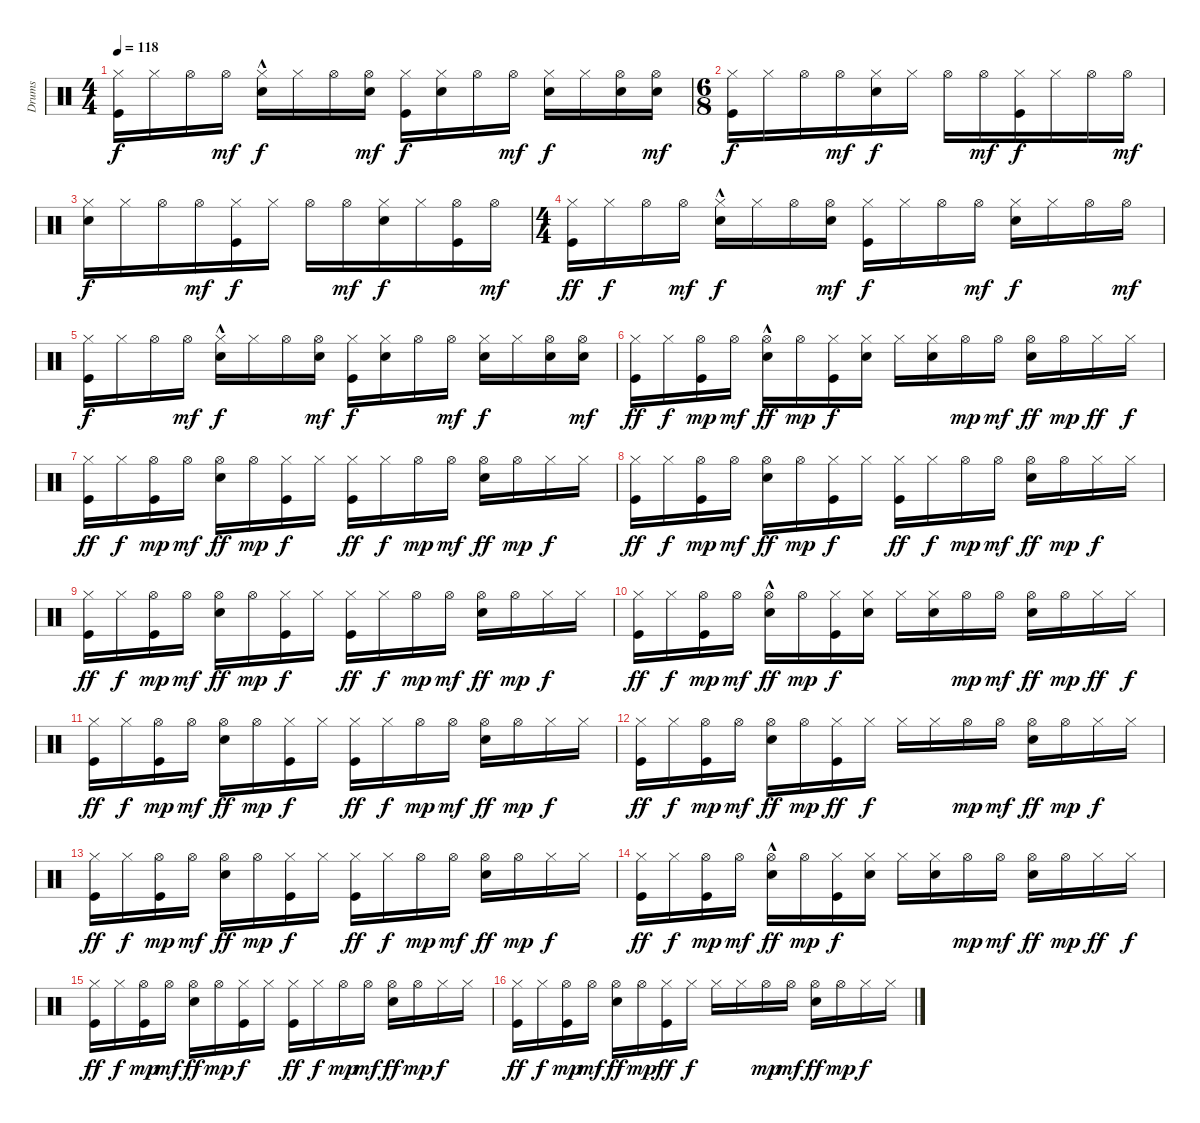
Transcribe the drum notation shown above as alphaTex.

\track ("Drums" "Drums") {instrument percussion}
\staff {score}
\articulation defaults
\ts (4 4)
\tempo 118
\clef neutral
\ks c
("Kick (hit)" "Hi-Hat (closed)").16{dy f} "Hi-Hat (closed)".16 "Hi-Hat (open)".16 "Hi-Hat (open)".16{dy mf} ("Electric Snare (hit)"{hac} "Hi-Hat (closed)").16{dy f} "Hi-Hat (closed)".16 "Hi-Hat (open)".16 ("Hi-Hat (open)" "Electric Snare (hit)").16{dy mf} ("Hi-Hat (closed)" "Kick (hit)").16{dy f} ("Electric Snare (hit)" "Hi-Hat (closed)").16 "Hi-Hat (open)".16 "Hi-Hat (open)".16{dy mf} ("Electric Snare (hit)" "Hi-Hat (closed)").16{dy f} "Hi-Hat (closed)".16 ("Electric Snare (hit)" "Hi-Hat (open)").16 ("Electric Snare (hit)" "Hi-Hat (open)").16{dy mf} |
\ts (6 8)
("Hi-Hat (closed)" "Kick (hit)").16{dy f} "Hi-Hat (closed)".16 "Hi-Hat (open)".16 "Hi-Hat (open)".16{dy mf} ("Electric Snare (hit)" "Hi-Hat (closed)").16{dy f} "Hi-Hat (closed)".16 "Hi-Hat (open)".16 "Hi-Hat (open)".16{dy mf} ("Kick (hit)" "Hi-Hat (closed)").16{dy f} "Hi-Hat (closed)".16 "Hi-Hat (open)".16 "Hi-Hat (open)".16{dy mf} |
("Electric Snare (hit)" "Hi-Hat (closed)").16{dy f} "Hi-Hat (closed)".16 "Hi-Hat (open)".16 "Hi-Hat (open)".16{dy mf} ("Kick (hit)" "Hi-Hat (closed)").16{dy f} "Hi-Hat (closed)".16 "Hi-Hat (open)".16 "Hi-Hat (open)".16{dy mf} ("Electric Snare (hit)" "Hi-Hat (closed)").16{dy f} "Hi-Hat (closed)".16 ("Kick (hit)" "Hi-Hat (open)").16 "Hi-Hat (open)".16{dy mf} |
\ts (4 4)
("Kick (hit)" "Hi-Hat (closed)").16{dy ff} "Hi-Hat (closed)".16{dy f} "Hi-Hat (open)".16 "Hi-Hat (open)".16{dy mf} ("Electric Snare (hit)"{hac} "Hi-Hat (closed)").16{dy f} "Hi-Hat (closed)".16 "Hi-Hat (open)".16 ("Hi-Hat (open)" "Electric Snare (hit)").16{dy mf} ("Hi-Hat (closed)" "Kick (hit)").16{dy f} "Hi-Hat (closed)".16 "Hi-Hat (open)".16 "Hi-Hat (open)".16{dy mf} ("Electric Snare (hit)" "Hi-Hat (closed)").16{dy f} "Hi-Hat (closed)".16 "Hi-Hat (open)".16 "Hi-Hat (open)".16{dy mf} |
("Kick (hit)" "Hi-Hat (closed)").16{dy f} "Hi-Hat (closed)".16 "Hi-Hat (open)".16 "Hi-Hat (open)".16{dy mf} ("Electric Snare (hit)"{hac} "Hi-Hat (closed)").16{dy f} "Hi-Hat (closed)".16 "Hi-Hat (open)".16 ("Hi-Hat (open)" "Electric Snare (hit)").16{dy mf} ("Hi-Hat (closed)" "Kick (hit)").16{dy f} ("Electric Snare (hit)" "Hi-Hat (closed)").16 "Hi-Hat (open)".16 "Hi-Hat (open)".16{dy mf} ("Electric Snare (hit)" "Hi-Hat (closed)").16{dy f} "Hi-Hat (closed)".16 ("Electric Snare (hit)" "Hi-Hat (open)").16 ("Electric Snare (hit)" "Hi-Hat (open)").16{dy mf} |
("Kick (hit)" "Hi-Hat (closed)").16{dy ff} "Hi-Hat (closed)".16{dy f} ("Kick (hit)" "Hi-Hat (open)").16{dy mp} "Hi-Hat (open)".16{dy mf} ("Electric Snare (hit)"{hac} "Hi-Hat (open)").16{dy ff} "Hi-Hat (open)".16{dy mp} ("Kick (hit)" "Hi-Hat (closed)").16{dy f} ("Electric Snare (hit)" "Hi-Hat (closed)").16 "Hi-Hat (closed)".16 ("Electric Snare (hit)" "Hi-Hat (closed)").16 "Hi-Hat (open)".16{dy mp} "Hi-Hat (open)".16{dy mf} ("Hi-Hat (open)" "Electric Snare (hit)").16{dy ff} "Hi-Hat (open)".16{dy mp} "Hi-Hat (closed)".16{dy ff} "Hi-Hat (closed)".16{dy f} |
("Kick (hit)" "Hi-Hat (closed)").16{dy ff} "Hi-Hat (closed)".16{dy f} ("Kick (hit)" "Hi-Hat (open)").16{dy mp} "Hi-Hat (open)".16{dy mf} ("Electric Snare (hit)" "Hi-Hat (open)").16{dy ff} "Hi-Hat (open)".16{dy mp} ("Kick (hit)" "Hi-Hat (closed)").16{dy f} "Hi-Hat (closed)".16 ("Kick (hit)" "Hi-Hat (closed)").16{dy ff} "Hi-Hat (closed)".16{dy f} "Hi-Hat (open)".16{dy mp} "Hi-Hat (open)".16{dy mf} ("Electric Snare (hit)" "Hi-Hat (open)").16{dy ff} "Hi-Hat (open)".16{dy mp} "Hi-Hat (closed)".16{dy f} "Hi-Hat (closed)".16 |
("Kick (hit)" "Hi-Hat (closed)").16{dy ff} "Hi-Hat (closed)".16{dy f} ("Kick (hit)" "Hi-Hat (open)").16{dy mp} "Hi-Hat (open)".16{dy mf} ("Electric Snare (hit)" "Hi-Hat (open)").16{dy ff} "Hi-Hat (open)".16{dy mp} ("Kick (hit)" "Hi-Hat (closed)").16{dy f} "Hi-Hat (closed)".16 ("Kick (hit)" "Hi-Hat (closed)").16{dy ff} "Hi-Hat (closed)".16{dy f} "Hi-Hat (open)".16{dy mp} "Hi-Hat (open)".16{dy mf} ("Electric Snare (hit)" "Hi-Hat (open)").16{dy ff} "Hi-Hat (open)".16{dy mp} "Hi-Hat (closed)".16{dy f} "Hi-Hat (closed)".16 |
("Kick (hit)" "Hi-Hat (closed)").16{dy ff} "Hi-Hat (closed)".16{dy f} ("Kick (hit)" "Hi-Hat (open)").16{dy mp} "Hi-Hat (open)".16{dy mf} ("Electric Snare (hit)" "Hi-Hat (open)").16{dy ff} "Hi-Hat (open)".16{dy mp} ("Kick (hit)" "Hi-Hat (closed)").16{dy f} "Hi-Hat (closed)".16 ("Kick (hit)" "Hi-Hat (closed)").16{dy ff} "Hi-Hat (closed)".16{dy f} "Hi-Hat (open)".16{dy mp} "Hi-Hat (open)".16{dy mf} ("Electric Snare (hit)" "Hi-Hat (open)").16{dy ff} "Hi-Hat (open)".16{dy mp} "Hi-Hat (closed)".16{dy f} "Hi-Hat (closed)".16 |
("Kick (hit)" "Hi-Hat (closed)").16{dy ff} "Hi-Hat (closed)".16{dy f} ("Kick (hit)" "Hi-Hat (open)").16{dy mp} "Hi-Hat (open)".16{dy mf} ("Electric Snare (hit)"{hac} "Hi-Hat (open)").16{dy ff} "Hi-Hat (open)".16{dy mp} ("Kick (hit)" "Hi-Hat (closed)").16{dy f} ("Electric Snare (hit)" "Hi-Hat (closed)").16 "Hi-Hat (closed)".16 ("Electric Snare (hit)" "Hi-Hat (closed)").16 "Hi-Hat (open)".16{dy mp} "Hi-Hat (open)".16{dy mf} ("Hi-Hat (open)" "Electric Snare (hit)").16{dy ff} "Hi-Hat (open)".16{dy mp} "Hi-Hat (closed)".16{dy ff} "Hi-Hat (closed)".16{dy f} |
("Kick (hit)" "Hi-Hat (closed)").16{dy ff} "Hi-Hat (closed)".16{dy f} ("Kick (hit)" "Hi-Hat (open)").16{dy mp} "Hi-Hat (open)".16{dy mf} ("Electric Snare (hit)" "Hi-Hat (open)").16{dy ff} "Hi-Hat (open)".16{dy mp} ("Kick (hit)" "Hi-Hat (closed)").16{dy f} "Hi-Hat (closed)".16 ("Kick (hit)" "Hi-Hat (closed)").16{dy ff} "Hi-Hat (closed)".16{dy f} "Hi-Hat (open)".16{dy mp} "Hi-Hat (open)".16{dy mf} ("Electric Snare (hit)" "Hi-Hat (open)").16{dy ff} "Hi-Hat (open)".16{dy mp} "Hi-Hat (closed)".16{dy f} "Hi-Hat (closed)".16 |
("Kick (hit)" "Hi-Hat (closed)").16{dy ff} "Hi-Hat (closed)".16{dy f} ("Kick (hit)" "Hi-Hat (open)").16{dy mp} "Hi-Hat (open)".16{dy mf} ("Electric Snare (hit)" "Hi-Hat (open)").16{dy ff} "Hi-Hat (open)".16{dy mp} ("Kick (hit)" "Hi-Hat (closed)").16{dy ff} "Hi-Hat (closed)".16{dy f} "Hi-Hat (closed)".16 "Hi-Hat (closed)".16 "Hi-Hat (open)".16{dy mp} "Hi-Hat (open)".16{dy mf} ("Electric Snare (hit)" "Hi-Hat (open)").16{dy ff} "Hi-Hat (open)".16{dy mp} "Hi-Hat (closed)".16{dy f} "Hi-Hat (closed)".16 |
("Kick (hit)" "Hi-Hat (closed)").16{dy ff} "Hi-Hat (closed)".16{dy f} ("Kick (hit)" "Hi-Hat (open)").16{dy mp} "Hi-Hat (open)".16{dy mf} ("Electric Snare (hit)" "Hi-Hat (open)").16{dy ff} "Hi-Hat (open)".16{dy mp} ("Kick (hit)" "Hi-Hat (closed)").16{dy f} "Hi-Hat (closed)".16 ("Kick (hit)" "Hi-Hat (closed)").16{dy ff} "Hi-Hat (closed)".16{dy f} "Hi-Hat (open)".16{dy mp} "Hi-Hat (open)".16{dy mf} ("Electric Snare (hit)" "Hi-Hat (open)").16{dy ff} "Hi-Hat (open)".16{dy mp} "Hi-Hat (closed)".16{dy f} "Hi-Hat (closed)".16 |
("Kick (hit)" "Hi-Hat (closed)").16{dy ff} "Hi-Hat (closed)".16{dy f} ("Kick (hit)" "Hi-Hat (open)").16{dy mp} "Hi-Hat (open)".16{dy mf} ("Electric Snare (hit)"{hac} "Hi-Hat (open)").16{dy ff} "Hi-Hat (open)".16{dy mp} ("Kick (hit)" "Hi-Hat (closed)").16{dy f} ("Electric Snare (hit)" "Hi-Hat (closed)").16 "Hi-Hat (closed)".16 ("Electric Snare (hit)" "Hi-Hat (closed)").16 "Hi-Hat (open)".16{dy mp} "Hi-Hat (open)".16{dy mf} ("Hi-Hat (open)" "Electric Snare (hit)").16{dy ff} "Hi-Hat (open)".16{dy mp} "Hi-Hat (closed)".16{dy ff} "Hi-Hat (closed)".16{dy f} |
("Kick (hit)" "Hi-Hat (closed)").16{dy ff} "Hi-Hat (closed)".16{dy f} ("Kick (hit)" "Hi-Hat (open)").16{dy mp} "Hi-Hat (open)".16{dy mf} ("Electric Snare (hit)" "Hi-Hat (open)").16{dy ff} "Hi-Hat (open)".16{dy mp} ("Kick (hit)" "Hi-Hat (closed)").16{dy f} "Hi-Hat (closed)".16 ("Kick (hit)" "Hi-Hat (closed)").16{dy ff} "Hi-Hat (closed)".16{dy f} "Hi-Hat (open)".16{dy mp} "Hi-Hat (open)".16{dy mf} ("Electric Snare (hit)" "Hi-Hat (open)").16{dy ff} "Hi-Hat (open)".16{dy mp} "Hi-Hat (closed)".16{dy f} "Hi-Hat (closed)".16 |
("Kick (hit)" "Hi-Hat (closed)").16{dy ff} "Hi-Hat (closed)".16{dy f} ("Kick (hit)" "Hi-Hat (open)").16{dy mp} "Hi-Hat (open)".16{dy mf} ("Electric Snare (hit)" "Hi-Hat (open)").16{dy ff} "Hi-Hat (open)".16{dy mp} ("Kick (hit)" "Hi-Hat (closed)").16{dy ff} "Hi-Hat (closed)".16{dy f} "Hi-Hat (closed)".16 "Hi-Hat (closed)".16 "Hi-Hat (open)".16{dy mp} "Hi-Hat (open)".16{dy mf} ("Electric Snare (hit)" "Hi-Hat (open)").16{dy ff} "Hi-Hat (open)".16{dy mp} "Hi-Hat (closed)".16{dy f} "Hi-Hat (closed)".16
